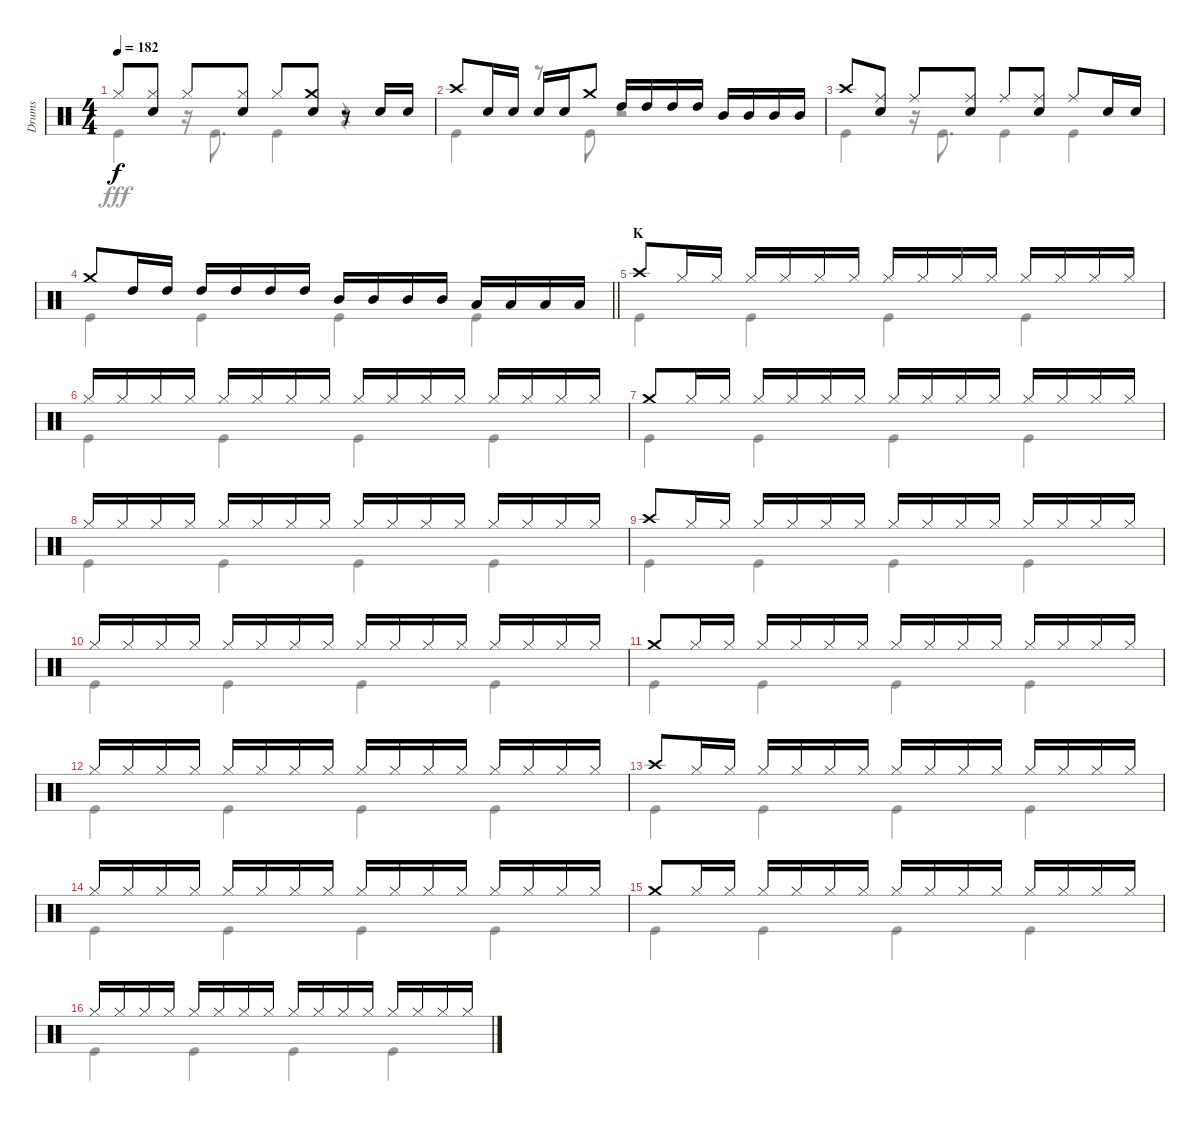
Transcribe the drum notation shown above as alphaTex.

\track ("Drums" "Drums") {instrument percussion}
\staff {score}
\articulation defaults
\voice
\ts (4 4)
\tempo 182
\clef neutral
\ks c "Hi-Hat (closed)".8{dy f}
("Hi-Hat (closed)" "Snare (hit) 2").8 "Hi-Hat (closed)".8 ("Hi-Hat (closed)" "Snare (hit) 2").8 "Hi-Hat (closed)".8 ("Crash medium (hit)" "Snare (hit) 2").8 r.8 "Snare (hit) 2".16 "Snare (hit) 2".16 |
"Crash high (hit)".8 "Snare (hit) 2".16 "Snare (hit) 2".16 "Snare (hit) 2".16 "Snare (hit) 2".16 "Crash medium (hit)".8 "High Tom (hit)".16 "High Tom (hit)".16 "High Tom (hit)".16 "High Tom (hit)".16 "Mid Tom (hit)".16 "Mid Tom (hit)".16 "Mid Tom (hit)".16 "Mid Tom (hit)".16 |
"Crash high (hit)".8 ("Ride (middle)" "Snare (hit) 2").8 "Ride (middle)".8 ("Ride (middle)" "Snare (hit) 2").8 "Ride (middle)".8 ("Ride (middle)" "Snare (hit) 2").8 "Ride (middle)".8 "Snare (hit) 2".16 "Snare (hit) 2".16 |
\barLineRight lightlight "Crash medium (hit)".8 "High Tom (hit)".16 "High Tom (hit)".16 "High Tom (hit)".16 "High Tom (hit)".16 "High Tom (hit)".16 "High Tom (hit)".16 "Mid Tom (hit)".16 "Mid Tom (hit)".16 "Mid Tom (hit)".16 "Mid Tom (hit)".16 "Low Tom (hit)".16 "Low Tom (hit)".16 "Low Tom (hit)".16 "Low Tom (hit)".16
|
\section ("" "K")
"Crash high (hit)".8 "Hi-Hat (closed)".16 "Hi-Hat (closed)".16 "Hi-Hat (closed)".16 "Hi-Hat (closed)".16 "Hi-Hat (closed)".16 "Hi-Hat (closed)".16 "Hi-Hat (closed)".16 "Hi-Hat (closed)".16 "Hi-Hat (closed)".16 "Hi-Hat (closed)".16 "Hi-Hat (closed)".16 "Hi-Hat (closed)".16 "Hi-Hat (closed)".16 "Hi-Hat (closed)".16 |
"Hi-Hat (closed)".16 "Hi-Hat (closed)".16 "Hi-Hat (closed)".16 "Hi-Hat (closed)".16 "Hi-Hat (closed)".16 "Hi-Hat (closed)".16 "Hi-Hat (closed)".16 "Hi-Hat (closed)".16 "Hi-Hat (closed)".16 "Hi-Hat (closed)".16 "Hi-Hat (closed)".16 "Hi-Hat (closed)".16 "Hi-Hat (closed)".16 "Hi-Hat (closed)".16 "Hi-Hat (closed)".16 "Hi-Hat (closed)".16 |
"Crash medium (hit)".8 "Hi-Hat (closed)".16 "Hi-Hat (closed)".16 "Hi-Hat (closed)".16 "Hi-Hat (closed)".16 "Hi-Hat (closed)".16 "Hi-Hat (closed)".16 "Hi-Hat (closed)".16 "Hi-Hat (closed)".16 "Hi-Hat (closed)".16 "Hi-Hat (closed)".16 "Hi-Hat (closed)".16 "Hi-Hat (closed)".16 "Hi-Hat (closed)".16 "Hi-Hat (closed)".16 |
"Hi-Hat (closed)".16 "Hi-Hat (closed)".16 "Hi-Hat (closed)".16 "Hi-Hat (closed)".16 "Hi-Hat (closed)".16 "Hi-Hat (closed)".16 "Hi-Hat (closed)".16 "Hi-Hat (closed)".16 "Hi-Hat (closed)".16 "Hi-Hat (closed)".16 "Hi-Hat (closed)".16 "Hi-Hat (closed)".16 "Hi-Hat (closed)".16 "Hi-Hat (closed)".16 "Hi-Hat (closed)".16 "Hi-Hat (closed)".16 |
"Crash high (hit)".8 "Hi-Hat (closed)".16 "Hi-Hat (closed)".16 "Hi-Hat (closed)".16 "Hi-Hat (closed)".16 "Hi-Hat (closed)".16 "Hi-Hat (closed)".16 "Hi-Hat (closed)".16 "Hi-Hat (closed)".16 "Hi-Hat (closed)".16 "Hi-Hat (closed)".16 "Hi-Hat (closed)".16 "Hi-Hat (closed)".16 "Hi-Hat (closed)".16 "Hi-Hat (closed)".16 |
"Hi-Hat (closed)".16 "Hi-Hat (closed)".16 "Hi-Hat (closed)".16 "Hi-Hat (closed)".16 "Hi-Hat (closed)".16 "Hi-Hat (closed)".16 "Hi-Hat (closed)".16 "Hi-Hat (closed)".16 "Hi-Hat (closed)".16 "Hi-Hat (closed)".16 "Hi-Hat (closed)".16 "Hi-Hat (closed)".16 "Hi-Hat (closed)".16 "Hi-Hat (closed)".16 "Hi-Hat (closed)".16 "Hi-Hat (closed)".16 |
"Crash medium (hit)".8 "Hi-Hat (closed)".16 "Hi-Hat (closed)".16 "Hi-Hat (closed)".16 "Hi-Hat (closed)".16 "Hi-Hat (closed)".16 "Hi-Hat (closed)".16 "Hi-Hat (closed)".16 "Hi-Hat (closed)".16 "Hi-Hat (closed)".16 "Hi-Hat (closed)".16 "Hi-Hat (closed)".16 "Hi-Hat (closed)".16 "Hi-Hat (closed)".16 "Hi-Hat (closed)".16 |
"Hi-Hat (closed)".16 "Hi-Hat (closed)".16 "Hi-Hat (closed)".16 "Hi-Hat (closed)".16 "Hi-Hat (closed)".16 "Hi-Hat (closed)".16 "Hi-Hat (closed)".16 "Hi-Hat (closed)".16 "Hi-Hat (closed)".16 "Hi-Hat (closed)".16 "Hi-Hat (closed)".16 "Hi-Hat (closed)".16 "Hi-Hat (closed)".16 "Hi-Hat (closed)".16 "Hi-Hat (closed)".16 "Hi-Hat (closed)".16 |
"Crash high (hit)".8 "Hi-Hat (closed)".16 "Hi-Hat (closed)".16 "Hi-Hat (closed)".16 "Hi-Hat (closed)".16 "Hi-Hat (closed)".16 "Hi-Hat (closed)".16 "Hi-Hat (closed)".16 "Hi-Hat (closed)".16 "Hi-Hat (closed)".16 "Hi-Hat (closed)".16 "Hi-Hat (closed)".16 "Hi-Hat (closed)".16 "Hi-Hat (closed)".16 "Hi-Hat (closed)".16 |
"Hi-Hat (closed)".16 "Hi-Hat (closed)".16 "Hi-Hat (closed)".16 "Hi-Hat (closed)".16 "Hi-Hat (closed)".16 "Hi-Hat (closed)".16 "Hi-Hat (closed)".16 "Hi-Hat (closed)".16 "Hi-Hat (closed)".16 "Hi-Hat (closed)".16 "Hi-Hat (closed)".16 "Hi-Hat (closed)".16 "Hi-Hat (closed)".16 "Hi-Hat (closed)".16 "Hi-Hat (closed)".16 "Hi-Hat (closed)".16 |
"Crash medium (hit)".8 "Hi-Hat (closed)".16 "Hi-Hat (closed)".16 "Hi-Hat (closed)".16 "Hi-Hat (closed)".16 "Hi-Hat (closed)".16 "Hi-Hat (closed)".16 "Hi-Hat (closed)".16 "Hi-Hat (closed)".16 "Hi-Hat (closed)".16 "Hi-Hat (closed)".16 "Hi-Hat (closed)".16 "Hi-Hat (closed)".16 "Hi-Hat (closed)".16 "Hi-Hat (closed)".16 |
"Hi-Hat (closed)".16 "Hi-Hat (closed)".16 "Hi-Hat (closed)".16 "Hi-Hat (closed)".16 "Hi-Hat (closed)".16 "Hi-Hat (closed)".16 "Hi-Hat (closed)".16 "Hi-Hat (closed)".16 "Hi-Hat (closed)".16 "Hi-Hat (closed)".16 "Hi-Hat (closed)".16 "Hi-Hat (closed)".16 "Hi-Hat (closed)".16 "Hi-Hat (closed)".16 "Hi-Hat (closed)".16 "Hi-Hat (closed)".16
\voice
\clef neutral
\ottava regular
\simile none
\ks c "Kick (hit)".4{dy fff}
r.16 "Kick (hit)".8{d} "Kick (hit)".4 r.4 |
"Kick (hit)".4 r.8 "Kick (hit)".8 r.2 |
"Kick (hit)".4 r.16 "Kick (hit)".8{d} "Kick (hit)".4 "Kick (hit)".4 |
\barLineRight lightlight "Kick (hit)".4 "Kick (hit)".4 "Kick (hit)".4 "Kick (hit)".4
|
"Kick (hit)".4 "Kick (hit)".4 "Kick (hit)".4 "Kick (hit)".4 |
"Kick (hit)".4 "Kick (hit)".4 "Kick (hit)".4 "Kick (hit)".4 |
"Kick (hit)".4 "Kick (hit)".4 "Kick (hit)".4 "Kick (hit)".4 |
"Kick (hit)".4 "Kick (hit)".4 "Kick (hit)".4 "Kick (hit)".4 |
"Kick (hit)".4 "Kick (hit)".4 "Kick (hit)".4 "Kick (hit)".4 |
"Kick (hit)".4 "Kick (hit)".4 "Kick (hit)".4 "Kick (hit)".4 |
"Kick (hit)".4 "Kick (hit)".4 "Kick (hit)".4 "Kick (hit)".4 |
"Kick (hit)".4 "Kick (hit)".4 "Kick (hit)".4 "Kick (hit)".4 |
"Kick (hit)".4 "Kick (hit)".4 "Kick (hit)".4 "Kick (hit)".4 |
"Kick (hit)".4 "Kick (hit)".4 "Kick (hit)".4 "Kick (hit)".4 |
"Kick (hit)".4 "Kick (hit)".4 "Kick (hit)".4 "Kick (hit)".4 |
"Kick (hit)".4 "Kick (hit)".4 "Kick (hit)".4 "Kick (hit)".4
